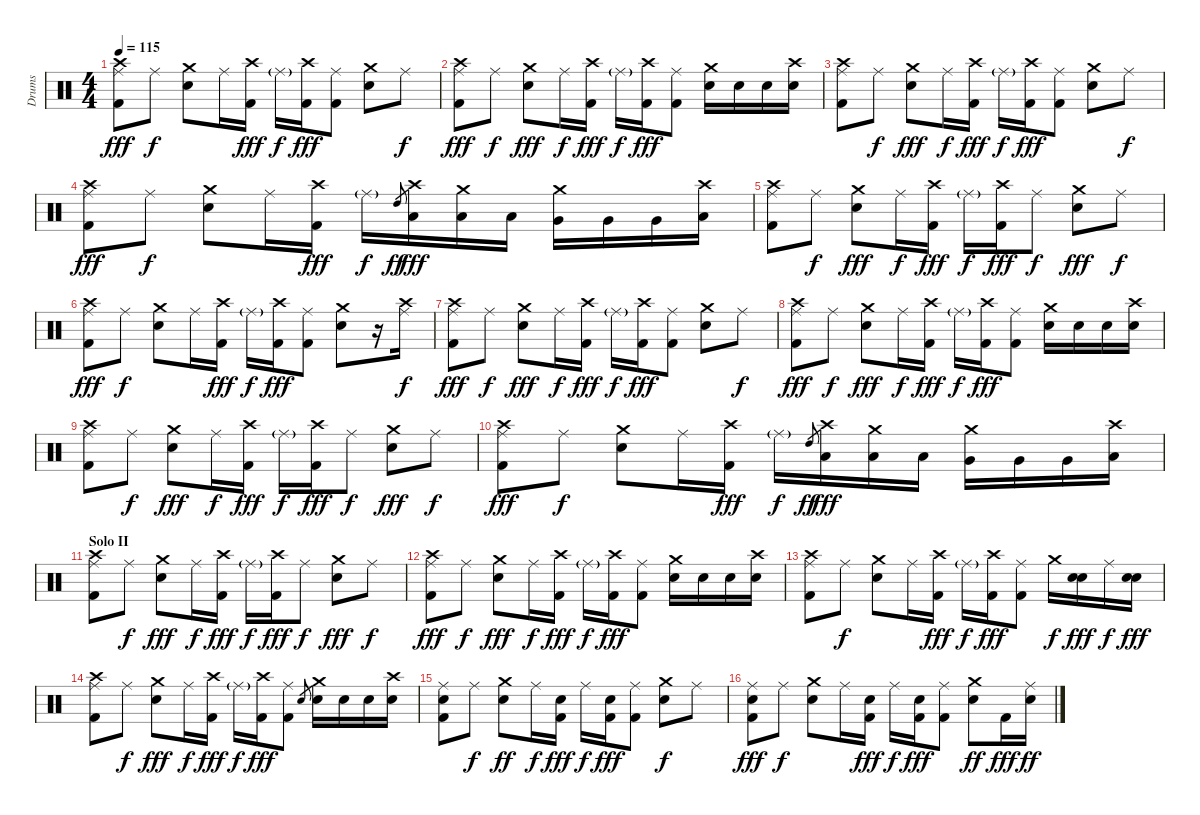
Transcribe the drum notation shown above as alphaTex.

\track ("Drums" "Drums") {instrument percussion}
\staff {score}
\articulation defaults
\ts (4 4)
\tempo 115
\clef neutral
\ks c
("Ride (middle)" "Crash high (hit)" "Kick (hit) 2").8{dy fff} "Ride (middle)".8{dy f} ("Crash medium (hit)" "Snare (hit) 2").8 "Ride (middle)".16 ("Crash high (hit)" "Kick (hit) 2").16{dy fff} "Ride (middle)"{g}.16{dy f} ("Crash high (hit)" "Kick (hit) 2").16{dy fff} ("Ride (middle)" "Kick (hit) 2").8 ("Crash medium (hit)" "Electric Snare (hit)").8 "Ride (middle)".8{dy f} |
("Ride (middle)" "Crash high (hit)" "Kick (hit) 2").8{dy fff} "Ride (middle)".8{dy f} ("Crash medium (hit)" "Electric Snare (hit)").8{dy fff} "Ride (middle)".16{dy f} ("Crash high (hit)" "Kick (hit) 2").16{dy fff} "Ride (middle)"{g}.16{dy f} ("Crash high (hit)" "Kick (hit) 2").16{dy fff} ("Ride (middle)" "Kick (hit) 2").8 ("Crash medium (hit)" "Electric Snare (hit)").16 "Electric Snare (hit)".16 "Electric Snare (hit)".16 ("Crash high (hit)" "Electric Snare (hit)").16 |
("Ride (middle)" "Crash high (hit)" "Kick (hit) 2").8 "Ride (middle)".8{dy f} ("Crash medium (hit)" "Electric Snare (hit)").8{dy fff} "Ride (middle)".16{dy f} ("Crash high (hit)" "Kick (hit) 2").16{dy fff} "Ride (middle)"{g}.16{dy f} ("Crash high (hit)" "Kick (hit) 2").16{dy fff} ("Ride (middle)" "Kick (hit) 2").8 ("Crash medium (hit)" "Electric Snare (hit)").8 "Ride (middle)".8{dy f} |
("Ride (middle)" "Crash high (hit)" "Kick (hit) 2").8{dy fff} "Ride (middle)".8{dy f} ("Crash medium (hit)" "Snare (hit) 2").8 "Ride (middle)".16 ("Crash high (hit)" "Kick (hit) 2").16{dy fff} "Ride (middle)"{g}.16{dy f} "High Tom (hit)".8{gr dy ff} ("Crash high (hit)" "Low Tom (hit)").16{dy fff} ("Crash medium (hit)" "Low Tom (hit)").16 "Low Tom (hit)".16 ("Crash medium (hit)" "Very Low Tom (hit)").16 "Very Low Tom (hit)".16 "Very Low Tom (hit)".16 ("Crash high (hit)" "Low Floor Tom (hit)").16 |
("Ride (middle)" "Crash high (hit)" "Kick (hit) 2").8 "Ride (middle)".8{dy f} ("Crash medium (hit)" "Electric Snare (hit)").8{dy fff} "Ride (middle)".16{dy f} ("Crash high (hit)" "Kick (hit) 2").16{dy fff} "Ride (middle)"{g}.16{dy f} ("Crash high (hit)" "Kick (hit) 2").16{dy fff} "Ride (middle)".8{dy f} ("Crash medium (hit)" "Electric Snare (hit)").8{dy fff} "Ride (middle)".8{dy f} |
("Ride (middle)" "Crash high (hit)" "Kick (hit) 2").8{dy fff} "Ride (middle)".8{dy f} ("Crash medium (hit)" "Snare (hit) 2").8 "Ride (middle)".16 ("Crash high (hit)" "Kick (hit) 2").16{dy fff} "Ride (middle)"{g}.16{dy f} ("Crash high (hit)" "Kick (hit) 2").16{dy fff} ("Ride (middle)" "Kick (hit) 2").8 ("Crash medium (hit)" "Electric Snare (hit)").8 r.16 ("Ride (middle)" "Crash high (hit)").16{dy f} |
("Ride (middle)" "Crash high (hit)" "Kick (hit) 2").8{dy fff} "Ride (middle)".8{dy f} ("Crash medium (hit)" "Electric Snare (hit)").8{dy fff} "Ride (middle)".16{dy f} ("Crash high (hit)" "Kick (hit) 2").16{dy fff} "Ride (middle)"{g}.16{dy f} ("Crash high (hit)" "Kick (hit) 2").16{dy fff} ("Ride (middle)" "Kick (hit) 2").8 ("Crash medium (hit)" "Electric Snare (hit)").8 "Ride (middle)".8{dy f} |
("Ride (middle)" "Crash high (hit)" "Kick (hit) 2").8{dy fff} "Ride (middle)".8{dy f} ("Crash medium (hit)" "Electric Snare (hit)").8{dy fff} "Ride (middle)".16{dy f} ("Crash high (hit)" "Kick (hit) 2").16{dy fff} "Ride (middle)"{g}.16{dy f} ("Crash high (hit)" "Kick (hit) 2").16{dy fff} ("Ride (middle)" "Kick (hit) 2").8 ("Crash medium (hit)" "Electric Snare (hit)").16 "Electric Snare (hit)".16 "Electric Snare (hit)".16 ("Crash high (hit)" "Electric Snare (hit)").16 |
("Ride (middle)" "Crash high (hit)" "Kick (hit) 2").8 "Ride (middle)".8{dy f} ("Crash medium (hit)" "Electric Snare (hit)").8{dy fff} "Ride (middle)".16{dy f} ("Crash high (hit)" "Kick (hit) 2").16{dy fff} "Ride (middle)"{g}.16{dy f} ("Crash high (hit)" "Kick (hit) 2").16{dy fff} "Ride (middle)".8{dy f} ("Crash medium (hit)" "Electric Snare (hit)").8{dy fff} "Ride (middle)".8{dy f} |
("Ride (middle)" "Crash high (hit)" "Kick (hit) 2").8{dy fff} "Ride (middle)".8{dy f} ("Crash medium (hit)" "Snare (hit) 2").8 "Ride (middle)".16 ("Crash high (hit)" "Kick (hit) 2").16{dy fff} "Ride (middle)"{g}.16{dy f} "High Tom (hit)".8{gr dy ff} ("Crash high (hit)" "Low Tom (hit)").16{dy fff} ("Crash medium (hit)" "Low Tom (hit)").16 "Low Tom (hit)".16 ("Crash medium (hit)" "Very Low Tom (hit)").16 "Very Low Tom (hit)".16 "Very Low Tom (hit)".16 ("Crash high (hit)" "Low Floor Tom (hit)").16 |
\section ("" "Solo II")
("Ride (middle)" "Crash high (hit)" "Kick (hit) 2").8 "Ride (middle)".8{dy f} ("Crash medium (hit)" "Electric Snare (hit)").8{dy fff} "Ride (middle)".16{dy f} ("Crash high (hit)" "Kick (hit) 2").16{dy fff} "Ride (middle)"{g}.16{dy f} ("Crash high (hit)" "Kick (hit) 2").16{dy fff} "Ride (middle)".8{dy f} ("Crash medium (hit)" "Electric Snare (hit)").8{dy fff} "Ride (middle)".8{dy f} |
("Ride (middle)" "Crash high (hit)" "Kick (hit) 2").8{dy fff} "Ride (middle)".8{dy f} ("Crash medium (hit)" "Electric Snare (hit)").8{dy fff} "Ride (middle)".16{dy f} ("Crash high (hit)" "Kick (hit) 2").16{dy fff} "Ride (middle)"{g}.16{dy f} ("Crash high (hit)" "Kick (hit) 2").16{dy fff} ("Ride (middle)" "Kick (hit) 2").8 ("Crash medium (hit)" "Electric Snare (hit)").16 "Electric Snare (hit)".16 "Electric Snare (hit)".16 ("Crash high (hit)" "Electric Snare (hit)").16 |
("Ride (middle)" "Crash high (hit)" "Kick (hit) 2").8 "Ride (middle)".8{dy f} ("Crash medium (hit)" "Snare (hit) 2").8 "Ride (middle)".16 ("Crash high (hit)" "Kick (hit) 2").16{dy fff} "Ride (middle)"{g}.16{dy f} ("Crash high (hit)" "Kick (hit) 2").16{dy fff} ("Ride (middle)" "Kick (hit) 2").8 "Crash medium (hit)".16{dy f} ("Electric Snare (hit)" "Electric Snare (hit)").16{dy fff} "Ride (middle)".16{dy f} ("Electric Snare (hit)" "Electric Snare (hit)").16{dy fff} |
("Ride (middle)" "Crash high (hit)" "Kick (hit) 2").8 "Ride (middle)".8{dy f} ("Crash medium (hit)" "Electric Snare (hit)").8{dy fff} "Ride (middle)".16{dy f} ("Crash high (hit)" "Kick (hit) 2").16{dy fff} "Ride (middle)"{g}.16{dy f} ("Crash high (hit)" "Kick (hit) 2").16{dy fff} ("Ride (middle)" "Kick (hit) 2").8 "Snare (hit) 2".8{gr} ("Crash medium (hit)" "Snare (hit) 2").16 "Snare (hit) 2".16 "Snare (hit) 2".16 ("Crash high (hit)" "Snare (hit) 2").16 |
("Ride (middle)" "Electric Snare (hit)" "Kick (hit) 2").8 "Ride (middle)".8{dy f} ("Crash medium (hit)" "Snare (hit) 2").8{dy ff} "Ride (middle)".16{dy f} ("Electric Snare (hit)" "Kick (hit) 2").16{dy fff} "Ride (middle)".16{dy f} ("Electric Snare (hit)" "Kick (hit) 2").16{dy fff} ("Ride (middle)" "Kick (hit) 2").8 ("Crash medium (hit)" "Snare (hit) 2").8{dy f} "Ride (middle)".8 |
("Ride (middle)" "Electric Snare (hit)" "Kick (hit) 2").8{dy fff} "Ride (middle)".8{dy f} ("Crash medium (hit)" "Snare (hit) 2").8 "Ride (middle)".16 ("Electric Snare (hit)" "Kick (hit) 2").16{dy fff} "Ride (middle)".16{dy f} ("Electric Snare (hit)" "Kick (hit) 2").16{dy fff} ("Ride (middle)" "Kick (hit) 2").8 ("Crash medium (hit)" "Snare (hit) 2").8{dy ff} "Kick (hit) 2".16{dy fff} ("Ride (middle)" "Electric Snare (hit)").16{dy ff}
